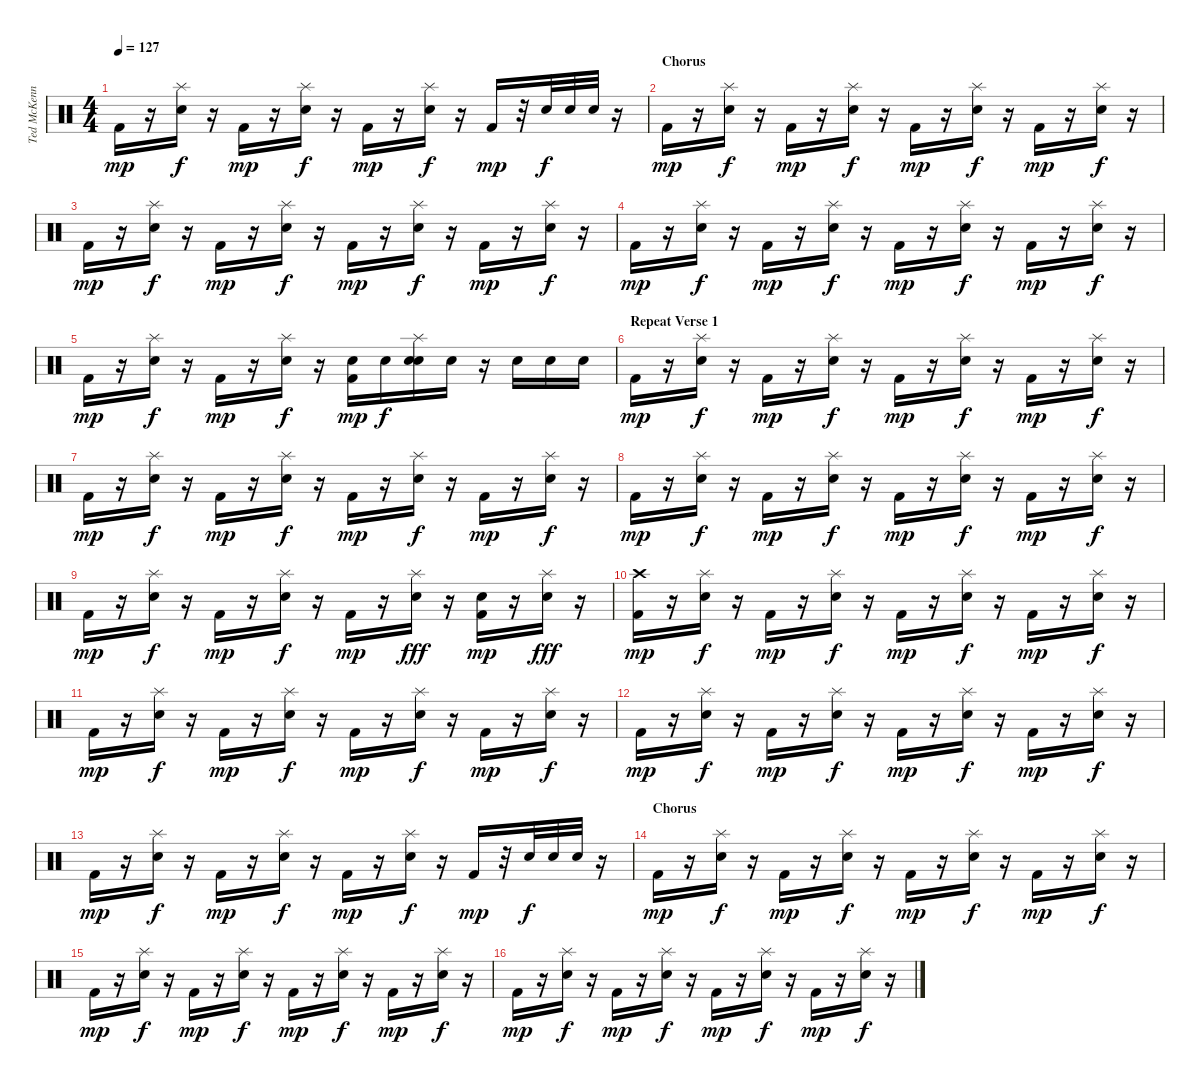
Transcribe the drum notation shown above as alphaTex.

\track ("Ted McKenna" "Ted McKenn") {instrument percussion}
\staff {score}
\articulation defaults
\ts (4 4)
\tempo 127
\clef neutral
\ks c "Kick (hit) 2".16{dy mp}
r.16 ("Splash (hit)" "Snare (hit) 2").16{dy f} r.16 "Kick (hit) 2".16{dy mp} r.16 ("Splash (hit)" "Snare (hit) 2").16{dy f} r.16 "Kick (hit) 2".16{dy mp} r.16 ("Splash (hit)" "Snare (hit) 2").16{dy f} r.16 "Kick (hit) 2".16{dy mp} r.32 "Snare (hit) 2".32{dy f} "Snare (hit) 2".32 "Snare (hit) 2".32 r.16 |
\section ("" "Chorus")
"Kick (hit) 2".16{dy mp} r.16 ("Splash (hit)" "Snare (hit) 2").16{dy f} r.16 "Kick (hit) 2".16{dy mp} r.16 ("Splash (hit)" "Snare (hit) 2").16{dy f} r.16 "Kick (hit) 2".16{dy mp} r.16 ("Splash (hit)" "Snare (hit) 2").16{dy f} r.16 "Kick (hit) 2".16{dy mp} r.16 ("Splash (hit)" "Snare (hit) 2").16{dy f} r.16 |
"Kick (hit) 2".16{dy mp} r.16 ("Splash (hit)" "Snare (hit) 2").16{dy f} r.16 "Kick (hit) 2".16{dy mp} r.16 ("Splash (hit)" "Snare (hit) 2").16{dy f} r.16 "Kick (hit) 2".16{dy mp} r.16 ("Splash (hit)" "Snare (hit) 2").16{dy f} r.16 "Kick (hit) 2".16{dy mp} r.16 ("Splash (hit)" "Snare (hit) 2").16{dy f} r.16 |
"Kick (hit) 2".16{dy mp} r.16 ("Splash (hit)" "Snare (hit) 2").16{dy f} r.16 "Kick (hit) 2".16{dy mp} r.16 ("Splash (hit)" "Snare (hit) 2").16{dy f} r.16 "Kick (hit) 2".16{dy mp} r.16 ("Splash (hit)" "Snare (hit) 2").16{dy f} r.16 "Kick (hit) 2".16{dy mp} r.16 ("Splash (hit)" "Snare (hit) 2").16{dy f} r.16 |
"Kick (hit) 2".16{dy mp} r.16 ("Splash (hit)" "Snare (hit) 2").16{dy f} r.16 "Kick (hit) 2".16{dy mp} r.16 ("Splash (hit)" "Snare (hit) 2").16{dy f} r.16 ("Electric Snare (hit)" "Kick (hit) 2").16{dy mp} "Electric Snare (hit)".16{dy f} ("Splash (hit)" "Snare (hit) 2" "Electric Snare (hit)").16 "Electric Snare (hit)".16 r.16 "Electric Snare (hit)".16 "Electric Snare (hit)".16 "Electric Snare (hit)".16 |
\section ("" "Repeat Verse 1")
"Kick (hit) 2".16{dy mp} r.16 ("Splash (hit)" "Snare (hit) 2").16{dy f} r.16 "Kick (hit) 2".16{dy mp} r.16 ("Splash (hit)" "Snare (hit) 2").16{dy f} r.16 "Kick (hit) 2".16{dy mp} r.16 ("Splash (hit)" "Snare (hit) 2").16{dy f} r.16 "Kick (hit) 2".16{dy mp} r.16 ("Splash (hit)" "Snare (hit) 2").16{dy f} r.16 |
"Kick (hit) 2".16{dy mp} r.16 ("Splash (hit)" "Snare (hit) 2").16{dy f} r.16 "Kick (hit) 2".16{dy mp} r.16 ("Splash (hit)" "Snare (hit) 2").16{dy f} r.16 "Kick (hit) 2".16{dy mp} r.16 ("Splash (hit)" "Snare (hit) 2").16{dy f} r.16 "Kick (hit) 2".16{dy mp} r.16 ("Splash (hit)" "Snare (hit) 2").16{dy f} r.16 |
"Kick (hit) 2".16{dy mp} r.16 ("Splash (hit)" "Snare (hit) 2").16{dy f} r.16 "Kick (hit) 2".16{dy mp} r.16 ("Splash (hit)" "Snare (hit) 2").16{dy f} r.16 "Kick (hit) 2".16{dy mp} r.16 ("Splash (hit)" "Snare (hit) 2").16{dy f} r.16 "Kick (hit) 2".16{dy mp} r.16 ("Splash (hit)" "Snare (hit) 2").16{dy f} r.16 |
"Kick (hit) 2".16{dy mp} r.16 ("Splash (hit)" "Snare (hit) 2").16{dy f} r.16 "Kick (hit) 2".16{dy mp} r.16 ("Splash (hit)" "Snare (hit) 2").16{dy f} r.16 "Kick (hit) 2".16{dy mp} r.16 ("Splash (hit)" "Electric Snare (hit)").16{dy fff} r.16 ("Electric Snare (hit)" "Kick (hit) 2").16{dy mp} r.16 ("Splash (hit)" "Electric Snare (hit)").16{dy fff} r.16 |
("Crash high (hit)" "Kick (hit) 2").16{dy mp} r.16 ("Splash (hit)" "Snare (hit) 2").16{dy f} r.16 "Kick (hit) 2".16{dy mp} r.16 ("Splash (hit)" "Snare (hit) 2").16{dy f} r.16 "Kick (hit) 2".16{dy mp} r.16 ("Splash (hit)" "Snare (hit) 2").16{dy f} r.16 "Kick (hit) 2".16{dy mp} r.16 ("Splash (hit)" "Snare (hit) 2").16{dy f} r.16 |
"Kick (hit) 2".16{dy mp} r.16 ("Splash (hit)" "Snare (hit) 2").16{dy f} r.16 "Kick (hit) 2".16{dy mp} r.16 ("Splash (hit)" "Snare (hit) 2").16{dy f} r.16 "Kick (hit) 2".16{dy mp} r.16 ("Splash (hit)" "Snare (hit) 2").16{dy f} r.16 "Kick (hit) 2".16{dy mp} r.16 ("Splash (hit)" "Snare (hit) 2").16{dy f} r.16 |
"Kick (hit) 2".16{dy mp} r.16 ("Splash (hit)" "Snare (hit) 2").16{dy f} r.16 "Kick (hit) 2".16{dy mp} r.16 ("Splash (hit)" "Snare (hit) 2").16{dy f} r.16 "Kick (hit) 2".16{dy mp} r.16 ("Splash (hit)" "Snare (hit) 2").16{dy f} r.16 "Kick (hit) 2".16{dy mp} r.16 ("Splash (hit)" "Snare (hit) 2").16{dy f} r.16 |
"Kick (hit) 2".16{dy mp} r.16 ("Splash (hit)" "Snare (hit) 2").16{dy f} r.16 "Kick (hit) 2".16{dy mp} r.16 ("Splash (hit)" "Snare (hit) 2").16{dy f} r.16 "Kick (hit) 2".16{dy mp} r.16 ("Splash (hit)" "Snare (hit) 2").16{dy f} r.16 "Kick (hit) 2".16{dy mp} r.32 "Snare (hit) 2".32{dy f} "Snare (hit) 2".32 "Snare (hit) 2".32 r.16 |
\section ("" "Chorus")
"Kick (hit) 2".16{dy mp} r.16 ("Splash (hit)" "Snare (hit) 2").16{dy f} r.16 "Kick (hit) 2".16{dy mp} r.16 ("Splash (hit)" "Snare (hit) 2").16{dy f} r.16 "Kick (hit) 2".16{dy mp} r.16 ("Splash (hit)" "Snare (hit) 2").16{dy f} r.16 "Kick (hit) 2".16{dy mp} r.16 ("Splash (hit)" "Snare (hit) 2").16{dy f} r.16 |
"Kick (hit) 2".16{dy mp} r.16 ("Splash (hit)" "Snare (hit) 2").16{dy f} r.16 "Kick (hit) 2".16{dy mp} r.16 ("Splash (hit)" "Snare (hit) 2").16{dy f} r.16 "Kick (hit) 2".16{dy mp} r.16 ("Splash (hit)" "Snare (hit) 2").16{dy f} r.16 "Kick (hit) 2".16{dy mp} r.16 ("Splash (hit)" "Snare (hit) 2").16{dy f} r.16 |
"Kick (hit) 2".16{dy mp} r.16 ("Splash (hit)" "Snare (hit) 2").16{dy f} r.16 "Kick (hit) 2".16{dy mp} r.16 ("Splash (hit)" "Snare (hit) 2").16{dy f} r.16 "Kick (hit) 2".16{dy mp} r.16 ("Splash (hit)" "Snare (hit) 2").16{dy f} r.16 "Kick (hit) 2".16{dy mp} r.16 ("Splash (hit)" "Snare (hit) 2").16{dy f} r.16
